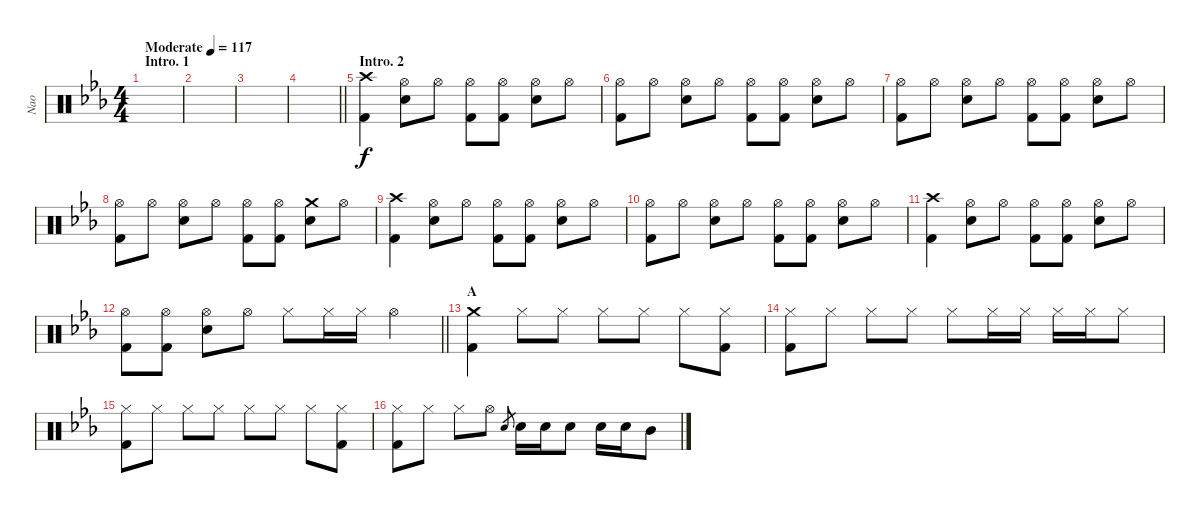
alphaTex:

\track ("Nao" "Nao") {instrument percussion}
\staff {score}
\articulation defaults
\ts (4 4)
\section ("" "Intro. 1")
\tempo (117 "Moderate")
\clef neutral
\ks eb
|
|
|
\barLineRight lightlight
|
\section ("" "Intro. 2")
("Crash high (hit)" "Kick (hit) 2").4 ("Hi-Hat (open)" "Snare (hit) 2").8 "Hi-Hat (open)".8 ("Hi-Hat (open)" "Kick (hit) 2").8 ("Hi-Hat (open)" "Kick (hit) 2").8 ("Hi-Hat (open)" "Snare (hit) 2").8 "Hi-Hat (open)".8 |
("Hi-Hat (open)" "Kick (hit) 2").8 "Hi-Hat (open)".8 ("Hi-Hat (open)" "Snare (hit) 2").8 "Hi-Hat (open)".8 ("Hi-Hat (open)" "Kick (hit) 2").8 ("Hi-Hat (open)" "Kick (hit) 2").8 ("Hi-Hat (open)" "Snare (hit) 2").8 "Hi-Hat (open)".8 |
("Hi-Hat (open)" "Kick (hit) 2").8 "Hi-Hat (open)".8 ("Hi-Hat (open)" "Snare (hit) 2").8 "Hi-Hat (open)".8 ("Hi-Hat (open)" "Kick (hit) 2").8 ("Hi-Hat (open)" "Kick (hit) 2").8 ("Hi-Hat (open)" "Snare (hit) 2").8 "Hi-Hat (open)".8 |
("Hi-Hat (open)" "Kick (hit) 2").8 "Hi-Hat (open)".8 ("Hi-Hat (open)" "Snare (hit) 2").8 "Hi-Hat (open)".8 ("Hi-Hat (open)" "Kick (hit) 2").8 ("Hi-Hat (open)" "Kick (hit) 2").8 ("Crash medium (hit)" "Snare (hit) 2").8 "Hi-Hat (open)".8 |
("Crash high (hit)" "Kick (hit) 2").4 ("Hi-Hat (open)" "Snare (hit) 2").8 "Hi-Hat (open)".8 ("Hi-Hat (open)" "Kick (hit) 2").8 ("Hi-Hat (open)" "Kick (hit) 2").8 ("Hi-Hat (open)" "Snare (hit) 2").8 "Hi-Hat (open)".8 |
("Hi-Hat (open)" "Kick (hit) 2").8 "Hi-Hat (open)".8 ("Hi-Hat (open)" "Snare (hit) 2").8 "Hi-Hat (open)".8 ("Hi-Hat (open)" "Kick (hit) 2").8 ("Hi-Hat (open)" "Kick (hit) 2").8 ("Hi-Hat (open)" "Snare (hit) 2").8 "Hi-Hat (open)".8 |
("Crash high (hit)" "Kick (hit) 2").4 ("Hi-Hat (open)" "Snare (hit) 2").8 "Hi-Hat (open)".8 ("Hi-Hat (open)" "Kick (hit) 2").8 ("Hi-Hat (open)" "Kick (hit) 2").8 ("Hi-Hat (open)" "Snare (hit) 2").8 "Hi-Hat (open)".8 |
\barLineRight lightlight
("Hi-Hat (open)" "Kick (hit) 2").8 ("Hi-Hat (open)" "Kick (hit) 2").8 ("Hi-Hat (open)" "Snare (hit) 2").8 "Hi-Hat (open)".8 "Hi-Hat (closed)".8 "Hi-Hat (closed)".16 "Hi-Hat (closed)".16 "Hi-Hat (open)".4 |
\section ("" "A")
("Crash medium (hit)" "Kick (hit) 2").4 "Hi-Hat (closed)".8 "Hi-Hat (closed)".8 "Hi-Hat (closed)".8 "Hi-Hat (closed)".8 "Hi-Hat (closed)".8 ("Hi-Hat (closed)" "Kick (hit) 2").8 |
("Hi-Hat (closed)" "Kick (hit) 2").8 "Hi-Hat (closed)".8 "Hi-Hat (closed)".8 "Hi-Hat (closed)".8 "Hi-Hat (closed)".8 "Hi-Hat (closed)".16 "Hi-Hat (closed)".16 "Hi-Hat (closed)".16 "Hi-Hat (closed)".16 "Hi-Hat (closed)".8 |
("Hi-Hat (closed)" "Kick (hit) 2").8 "Hi-Hat (closed)".8 "Hi-Hat (closed)".8 "Hi-Hat (closed)".8 "Hi-Hat (closed)".8 "Hi-Hat (closed)".8 "Hi-Hat (closed)".8 ("Hi-Hat (closed)" "Kick (hit) 2").8 |
("Hi-Hat (closed)" "Kick (hit) 2").8 "Hi-Hat (closed)".8 "Hi-Hat (closed)".8 "Hi-Hat (open)".8 "Snare (hit) 2".8{gr} "Snare (hit) 2".16 "Snare (hit) 2".16 "Snare (hit) 2".8 "Snare (hit) 2".16 "Snare (hit) 2".16 "Mid Tom (hit)".8
